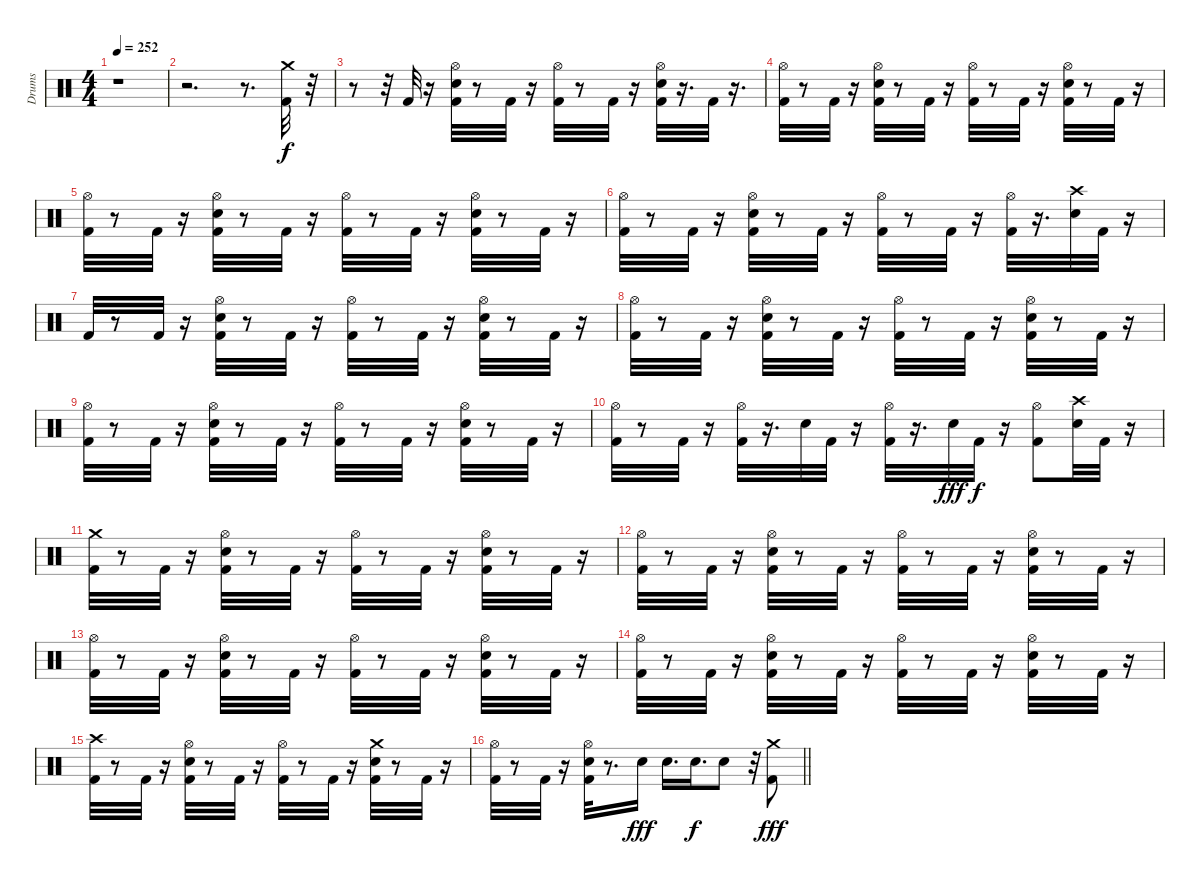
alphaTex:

\track ("Drums" "Drums") {instrument percussion}
\staff {score}
\articulation defaults
\ts (4 4)
\tempo 252
\clef neutral
\ks c
r.1{dy f} |
r.2{d} r.8{d} ("Crash medium (hit)" "Kick (hit) 2").32 r.32 |
r.8 r.32 "Kick (hit) 2".32 r.16 ("Snare (hit) 2" "Kick (hit) 2" "Hi-Hat (open)").32 r.8 "Kick (hit) 2".32 r.16 ("Kick (hit) 2" "Hi-Hat (open)").32 r.8 "Kick (hit) 2".32 r.16 ("Snare (hit) 2" "Kick (hit) 2" "Hi-Hat (open)").32 r.16{d} "Kick (hit) 2".32 r.16{d} |
("Kick (hit) 2" "Hi-Hat (open)").32 r.8 "Kick (hit) 2".32 r.16 ("Snare (hit) 2" "Hi-Hat (open)" "Kick (hit) 2").32 r.8 "Kick (hit) 2".32 r.16 ("Hi-Hat (open)" "Kick (hit) 2").32 r.8 "Kick (hit) 2".32 r.16 ("Hi-Hat (open)" "Kick (hit) 2" "Snare (hit) 2").32 r.8 "Kick (hit) 2".32 r.16 |
("Hi-Hat (open)" "Kick (hit) 2").32 r.8 "Kick (hit) 2".32 r.16 ("Hi-Hat (open)" "Snare (hit) 2" "Kick (hit) 2").32 r.8 "Kick (hit) 2".32 r.16 ("Hi-Hat (open)" "Kick (hit) 2").32 r.8 "Kick (hit) 2".32 r.16 ("Hi-Hat (open)" "Kick (hit) 2" "Snare (hit) 2").32 r.8 "Kick (hit) 2".32 r.16 |
("Hi-Hat (open)" "Kick (hit) 2").32 r.8 "Kick (hit) 2".32 r.16 ("Kick (hit) 2" "Hi-Hat (open)" "Snare (hit) 2").32 r.8 "Kick (hit) 2".32 r.16 ("Kick (hit) 2" "Hi-Hat (open)").32 r.8 "Kick (hit) 2".32 r.16 ("Kick (hit) 2" "Hi-Hat (open)").32 r.16{d} ("Snare (hit) 2" "Crash high (hit)").32 "Kick (hit) 2".32 r.16 |
"Kick (hit) 2".32 r.8 "Kick (hit) 2".32 r.16 ("Hi-Hat (open)" "Kick (hit) 2" "Snare (hit) 2").32 r.8 "Kick (hit) 2".32 r.16 ("Kick (hit) 2" "Hi-Hat (open)").32 r.8 "Kick (hit) 2".32 r.16 ("Hi-Hat (open)" "Kick (hit) 2" "Snare (hit) 2").32 r.8 "Kick (hit) 2".32 r.16 |
("Hi-Hat (open)" "Kick (hit) 2").32 r.8 "Kick (hit) 2".32 r.16 ("Kick (hit) 2" "Hi-Hat (open)" "Snare (hit) 2").32 r.8 "Kick (hit) 2".32 r.16 ("Hi-Hat (open)" "Kick (hit) 2").32 r.8 "Kick (hit) 2".32 r.16 ("Hi-Hat (open)" "Kick (hit) 2" "Snare (hit) 2").32 r.8 "Kick (hit) 2".32 r.16 |
("Hi-Hat (open)" "Kick (hit) 2").32 r.8 "Kick (hit) 2".32 r.16 ("Hi-Hat (open)" "Kick (hit) 2" "Snare (hit) 2").32 r.8 "Kick (hit) 2".32 r.16 ("Hi-Hat (open)" "Kick (hit) 2").32 r.8 "Kick (hit) 2".32 r.16 ("Kick (hit) 2" "Hi-Hat (open)" "Snare (hit) 2").32 r.8 "Kick (hit) 2".32 r.16 |
("Kick (hit) 2" "Hi-Hat (open)").32 r.8 "Kick (hit) 2".32 r.16 ("Hi-Hat (open)" "Kick (hit) 2").32 r.16{d} "Snare (hit) 2".32 "Kick (hit) 2".32 r.16 ("Hi-Hat (open)" "Kick (hit) 2").32 r.16{d} "Snare (hit) 2".32{dy fff} "Kick (hit) 2".32{dy f} r.16 ("Kick (hit) 2" "Hi-Hat (open)").8 ("Crash high (hit)" "Snare (hit) 2").32 "Kick (hit) 2".32 r.16 |
("Crash medium (hit)" "Kick (hit) 2").32 r.8 "Kick (hit) 2".32 r.16 ("Snare (hit) 2" "Kick (hit) 2" "Hi-Hat (open)").32 r.8 "Kick (hit) 2".32 r.16 ("Kick (hit) 2" "Hi-Hat (open)").32 r.8 "Kick (hit) 2".32 r.16 ("Snare (hit) 2" "Kick (hit) 2" "Hi-Hat (open)").32 r.8 "Kick (hit) 2".32 r.16 |
("Hi-Hat (open)" "Kick (hit) 2").32 r.8 "Kick (hit) 2".32 r.16 ("Hi-Hat (open)" "Kick (hit) 2" "Snare (hit) 2").32 r.8 "Kick (hit) 2".32 r.16 ("Hi-Hat (open)" "Kick (hit) 2").32 r.8 "Kick (hit) 2".32 r.16 ("Snare (hit) 2" "Hi-Hat (open)" "Kick (hit) 2").32 r.8 "Kick (hit) 2".32 r.16 |
("Hi-Hat (open)" "Kick (hit) 2").32 r.8 "Kick (hit) 2".32 r.16 ("Hi-Hat (open)" "Kick (hit) 2" "Snare (hit) 2").32 r.8 "Kick (hit) 2".32 r.16 ("Kick (hit) 2" "Hi-Hat (open)").32 r.8 "Kick (hit) 2".32 r.16 ("Kick (hit) 2" "Hi-Hat (open)" "Snare (hit) 2").32 r.8 "Kick (hit) 2".32 r.16 |
("Hi-Hat (open)" "Kick (hit) 2").32 r.8 "Kick (hit) 2".32 r.16 ("Kick (hit) 2" "Hi-Hat (open)" "Snare (hit) 2").32 r.8 "Kick (hit) 2".32 r.16 ("Hi-Hat (open)" "Kick (hit) 2").32 r.8 "Kick (hit) 2".32 r.16 ("Snare (hit) 2" "Hi-Hat (open)" "Kick (hit) 2").32 r.8 "Kick (hit) 2".32 r.16 |
("Kick (hit) 2" "Crash high (hit)").32 r.8 "Kick (hit) 2".32 r.16 ("Kick (hit) 2" "Snare (hit) 2" "Hi-Hat (open)").32 r.8 "Kick (hit) 2".32 r.16 ("Hi-Hat (open)" "Kick (hit) 2").32 r.8 "Kick (hit) 2".32 r.16 ("Snare (hit) 2" "Kick (hit) 2" "Crash medium (hit)").32 r.8 "Kick (hit) 2".32 r.16 |
\barLineRight lightlight
("Hi-Hat (open)" "Kick (hit) 2").32 r.8 "Kick (hit) 2".32 r.16 ("Hi-Hat (open)" "Kick (hit) 2" "Snare (hit) 2").32 r.8{d} "Snare (hit) 2".16{dy fff} "Snare (hit) 2".16{d} "Snare (hit) 2".16{d dy f} "Snare (hit) 2".8 r.32 ("Kick (hit) 2" "Crash medium (hit)").8{dy fff}
